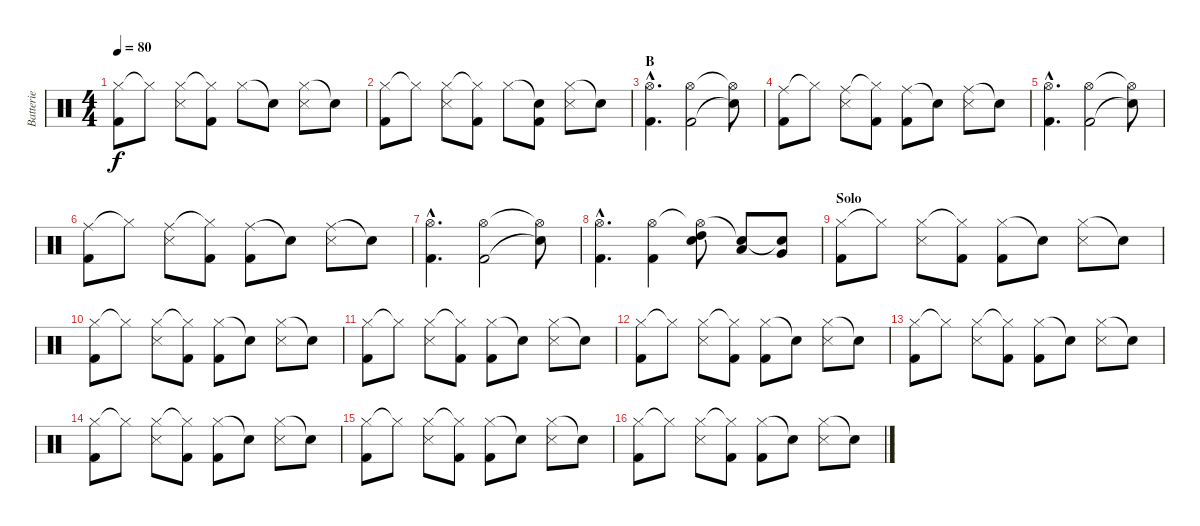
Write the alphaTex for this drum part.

\track ("Batterie" "Batterie") {instrument percussion}
\staff {score}
\articulation defaults
\ts (4 4)
\tempo 80
\clef neutral
\ks c
("Hi-Hat (closed)" "Kick (hit) 2").8{dy f} "Hi-Hat (closed)"{t}.8 ("Hi-Hat (closed)" "Snare (side stick) 3").8 ("Hi-Hat (closed)"{t} "Kick (hit) 2").8 "Hi-Hat (closed)".8 "Snare (hit)"{t}.8 ("Hi-Hat (closed)" "Snare (side stick) 3").8 "Snare (hit)"{t}.8 |
("Hi-Hat (closed)" "Kick (hit) 2").8 "Hi-Hat (closed)"{t}.8 ("Hi-Hat (closed)" "Snare (side stick) 3").8 ("Hi-Hat (closed)"{t} "Kick (hit) 2").8 "Hi-Hat (closed)".8 ("Snare (hit)"{t} "Kick (hit) 2").8 ("Hi-Hat (closed)" "Snare (side stick) 3").8 "Snare (hit)"{t}.8 |
\section ("" "B")
("Hi-Hat (open)"{hac} "Kick (hit) 2"{hac}).4{d} ("Hi-Hat (open)" "Kick (hit) 2").2 ("Hi-Hat (open)"{t} "Snare (hit)"{t}).8 |
("Ride (middle)" "Kick (hit) 2").8 "Hi-Hat (closed)"{t}.8 ("Ride (middle)" "Snare (side stick) 3").8 ("Hi-Hat (closed)"{t} "Kick (hit) 2").8 ("Ride (middle)" "Kick (hit) 2").8 "Snare (hit)"{t}.8 ("Ride (middle)" "Snare (side stick) 3").8 "Snare (hit)"{t}.8 |
("Hi-Hat (open)"{hac} "Kick (hit) 2"{hac}).4{d} ("Hi-Hat (open)" "Kick (hit) 2").2 ("Hi-Hat (open)"{t} "Snare (hit)"{t}).8 |
("Ride (middle)" "Kick (hit) 2").8 "Hi-Hat (closed)"{t}.8 ("Ride (middle)" "Snare (side stick) 3").8 ("Hi-Hat (closed)"{t} "Kick (hit) 2").8 ("Ride (middle)" "Kick (hit) 2").8 "Snare (hit)"{t}.8 ("Ride (middle)" "Snare (side stick) 3").8 "Snare (hit)"{t}.8 |
("Hi-Hat (open)"{hac} "Kick (hit) 2"{hac}).4{d} ("Hi-Hat (open)" "Kick (hit) 2").2 ("Hi-Hat (open)"{t} "Snare (hit)"{t}).8 |
("Hi-Hat (open)"{hac} "Kick (hit) 2"{hac}).4{d} ("Hi-Hat (open)" "Kick (hit) 2").4 ("Hi-Hat (open)"{t} "High Tom (hit)" "Snare (hit)").8 ("Snare (hit)"{t} "Low Tom (hit)").8 ("Snare (hit)"{t} "Very Low Tom (hit)").8 |
\section ("" "Solo")
("Hi-Hat (closed)" "Kick (hit) 2").8 "Hi-Hat (closed)"{t}.8 ("Hi-Hat (closed)" "Snare (side stick) 3").8 ("Hi-Hat (closed)"{t} "Kick (hit) 2").8 ("Hi-Hat (closed)" "Kick (hit) 2").8 "Snare (hit)"{t}.8 ("Hi-Hat (closed)" "Snare (side stick) 3").8 "Snare (hit)"{t}.8 |
("Hi-Hat (closed)" "Kick (hit) 2").8 "Hi-Hat (closed)"{t}.8 ("Hi-Hat (closed)" "Snare (side stick) 3").8 ("Hi-Hat (closed)"{t} "Kick (hit) 2").8 ("Hi-Hat (closed)" "Kick (hit) 2").8 "Snare (hit)"{t}.8 ("Hi-Hat (closed)" "Snare (side stick) 3").8 "Snare (hit)"{t}.8 |
("Hi-Hat (closed)" "Kick (hit) 2").8 "Hi-Hat (closed)"{t}.8 ("Hi-Hat (closed)" "Snare (side stick) 3").8 ("Hi-Hat (closed)"{t} "Kick (hit) 2").8 ("Hi-Hat (closed)" "Kick (hit) 2").8 "Snare (hit)"{t}.8 ("Hi-Hat (closed)" "Snare (side stick) 3").8 "Snare (hit)"{t}.8 |
("Hi-Hat (closed)" "Kick (hit) 2").8 "Hi-Hat (closed)"{t}.8 ("Hi-Hat (closed)" "Snare (side stick) 3").8 ("Hi-Hat (closed)"{t} "Kick (hit) 2").8 ("Hi-Hat (closed)" "Kick (hit) 2").8 "Snare (hit)"{t}.8 ("Hi-Hat (closed)" "Snare (side stick) 3").8 "Snare (hit)"{t}.8 |
("Hi-Hat (closed)" "Kick (hit) 2").8 "Hi-Hat (closed)"{t}.8 ("Hi-Hat (closed)" "Snare (side stick) 3").8 ("Hi-Hat (closed)"{t} "Kick (hit) 2").8 ("Hi-Hat (closed)" "Kick (hit) 2").8 "Snare (hit)"{t}.8 ("Hi-Hat (closed)" "Snare (side stick) 3").8 "Snare (hit)"{t}.8 |
("Hi-Hat (closed)" "Kick (hit) 2").8 "Hi-Hat (closed)"{t}.8 ("Hi-Hat (closed)" "Snare (side stick) 3").8 ("Hi-Hat (closed)"{t} "Kick (hit) 2").8 ("Hi-Hat (closed)" "Kick (hit) 2").8 "Snare (hit)"{t}.8 ("Hi-Hat (closed)" "Snare (side stick) 3").8 "Snare (hit)"{t}.8 |
("Hi-Hat (closed)" "Kick (hit) 2").8 "Hi-Hat (closed)"{t}.8 ("Hi-Hat (closed)" "Snare (side stick) 3").8 ("Hi-Hat (closed)"{t} "Kick (hit) 2").8 ("Hi-Hat (closed)" "Kick (hit) 2").8 "Snare (hit)"{t}.8 ("Hi-Hat (closed)" "Snare (side stick) 3").8 "Snare (hit)"{t}.8 |
("Hi-Hat (closed)" "Kick (hit) 2").8 "Hi-Hat (closed)"{t}.8 ("Hi-Hat (closed)" "Snare (side stick) 3").8 ("Hi-Hat (closed)"{t} "Kick (hit) 2").8 ("Hi-Hat (closed)" "Kick (hit) 2").8 "Snare (hit)"{t}.8 ("Hi-Hat (closed)" "Snare (side stick) 3").8 "Snare (hit)"{t}.8
